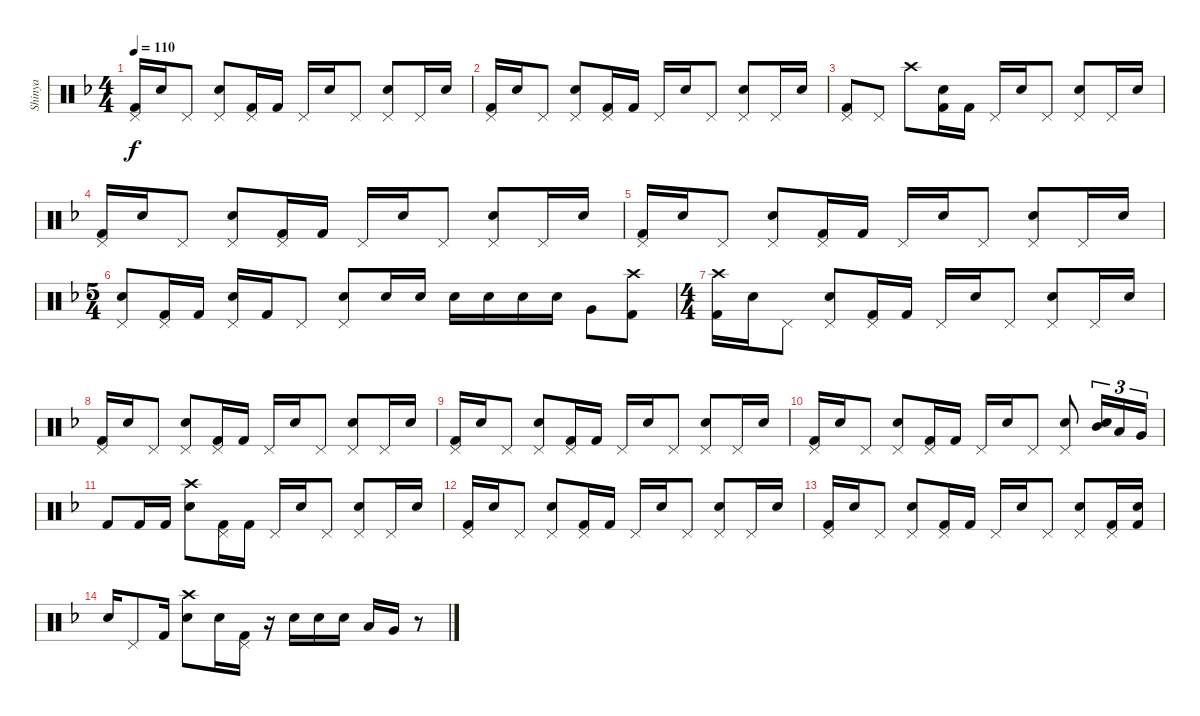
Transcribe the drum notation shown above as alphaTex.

\track ("Shinya" "Shinya") {instrument percussion}
\staff {score}
\articulation defaults
\ts (4 4)
\tempo 110
\clef neutral
\ks f
("Pedal Hi-Hat (hit)" "Kick (hit) 2").16{dy f} "Electric Snare (hit)".16 "Pedal Hi-Hat (hit)".8 ("Pedal Hi-Hat (hit)" "Electric Snare (hit)").8 ("Pedal Hi-Hat (hit)" "Kick (hit) 2").16 "Kick (hit) 2".16 "Pedal Hi-Hat (hit)".16 "Electric Snare (hit)".16 "Pedal Hi-Hat (hit)".8 ("Pedal Hi-Hat (hit)" "Electric Snare (hit)").8 "Pedal Hi-Hat (hit)".16 "Electric Snare (hit)".16 |
("Pedal Hi-Hat (hit)" "Kick (hit) 2").16 "Electric Snare (hit)".16 "Pedal Hi-Hat (hit)".8 ("Pedal Hi-Hat (hit)" "Electric Snare (hit)").8 ("Pedal Hi-Hat (hit)" "Kick (hit) 2").16 "Kick (hit) 2".16 "Pedal Hi-Hat (hit)".16 "Electric Snare (hit)".16 "Pedal Hi-Hat (hit)".8 ("Pedal Hi-Hat (hit)" "Electric Snare (hit)").8 "Pedal Hi-Hat (hit)".16 "Electric Snare (hit)".16 |
("Pedal Hi-Hat (hit)" "Kick (hit) 2").8 "Pedal Hi-Hat (hit)".8 "Crash high (hit)".8 ("Electric Snare (hit)" "Kick (hit) 2").16 "Kick (hit) 2".16 "Pedal Hi-Hat (hit)".16 "Electric Snare (hit)".16 "Pedal Hi-Hat (hit)".8 ("Pedal Hi-Hat (hit)" "Electric Snare (hit)").8 "Pedal Hi-Hat (hit)".16 "Electric Snare (hit)".16 |
("Pedal Hi-Hat (hit)" "Kick (hit) 2").16 "Electric Snare (hit)".16 "Pedal Hi-Hat (hit)".8 ("Pedal Hi-Hat (hit)" "Electric Snare (hit)").8 ("Pedal Hi-Hat (hit)" "Kick (hit) 2").16 "Kick (hit) 2".16 "Pedal Hi-Hat (hit)".16 "Electric Snare (hit)".16 "Pedal Hi-Hat (hit)".8 ("Pedal Hi-Hat (hit)" "Electric Snare (hit)").8 "Pedal Hi-Hat (hit)".16 "Electric Snare (hit)".16 |
("Pedal Hi-Hat (hit)" "Kick (hit) 2").16 "Electric Snare (hit)".16 "Pedal Hi-Hat (hit)".8 ("Pedal Hi-Hat (hit)" "Electric Snare (hit)").8 ("Pedal Hi-Hat (hit)" "Kick (hit) 2").16 "Kick (hit) 2".16 "Pedal Hi-Hat (hit)".16 "Electric Snare (hit)".16 "Pedal Hi-Hat (hit)".8 ("Pedal Hi-Hat (hit)" "Electric Snare (hit)").8 "Pedal Hi-Hat (hit)".16 "Electric Snare (hit)".16 |
\ts (5 4)
("Pedal Hi-Hat (hit)" "Electric Snare (hit)").8 ("Pedal Hi-Hat (hit)" "Kick (hit) 2").16 "Kick (hit) 2".16 ("Pedal Hi-Hat (hit)" "Electric Snare (hit)").16 "Kick (hit) 2".16 "Pedal Hi-Hat (hit)".8 ("Pedal Hi-Hat (hit)" "Electric Snare (hit)").8 "Electric Snare (hit)".16 "Electric Snare (hit)".16 "Electric Snare (hit)".16 "Electric Snare (hit)".16 "Electric Snare (hit)".16 "Electric Snare (hit)".16 "Very Low Tom (hit)".8 ("Crash high (hit)" "Kick (hit) 2").8 |
\ts (4 4)
("Crash high (hit)" "Kick (hit) 2").16 "Electric Snare (hit)".16 "Pedal Hi-Hat (hit)".8 ("Pedal Hi-Hat (hit)" "Electric Snare (hit)").8 ("Pedal Hi-Hat (hit)" "Kick (hit) 2").16 "Kick (hit) 2".16 "Pedal Hi-Hat (hit)".16 "Electric Snare (hit)".16 "Pedal Hi-Hat (hit)".8 ("Pedal Hi-Hat (hit)" "Electric Snare (hit)").8 "Pedal Hi-Hat (hit)".16 "Electric Snare (hit)".16 |
("Pedal Hi-Hat (hit)" "Kick (hit) 2").16 "Electric Snare (hit)".16 "Pedal Hi-Hat (hit)".8 ("Pedal Hi-Hat (hit)" "Electric Snare (hit)").8 ("Pedal Hi-Hat (hit)" "Kick (hit) 2").16 "Kick (hit) 2".16 "Pedal Hi-Hat (hit)".16 "Electric Snare (hit)".16 "Pedal Hi-Hat (hit)".8 ("Pedal Hi-Hat (hit)" "Electric Snare (hit)").8 "Pedal Hi-Hat (hit)".16 "Electric Snare (hit)".16 |
("Pedal Hi-Hat (hit)" "Kick (hit) 2").16 "Electric Snare (hit)".16 "Pedal Hi-Hat (hit)".8 ("Pedal Hi-Hat (hit)" "Electric Snare (hit)").8 ("Pedal Hi-Hat (hit)" "Kick (hit) 2").16 "Kick (hit) 2".16 "Pedal Hi-Hat (hit)".16 "Electric Snare (hit)".16 "Pedal Hi-Hat (hit)".8 ("Pedal Hi-Hat (hit)" "Electric Snare (hit)").8 "Pedal Hi-Hat (hit)".16 "Electric Snare (hit)".16 |
("Pedal Hi-Hat (hit)" "Kick (hit) 2").16 "Electric Snare (hit)".16 "Pedal Hi-Hat (hit)".8 ("Pedal Hi-Hat (hit)" "Electric Snare (hit)").8 ("Pedal Hi-Hat (hit)" "Kick (hit) 2").16 "Kick (hit) 2".16 "Pedal Hi-Hat (hit)".16 "Electric Snare (hit)".16 "Pedal Hi-Hat (hit)".8 ("Pedal Hi-Hat (hit)" "Electric Snare (hit)").8 ("Mid Tom (hit)" "Electric Snare (hit)").16{tu (3 2)} "Low Tom (hit)".16{tu (3 2)} "Very Low Tom (hit)".16{tu (3 2)} |
"Kick (hit) 2".8 "Kick (hit) 2".16 "Kick (hit) 2".16 ("Crash high (hit)" "Electric Snare (hit)").8 ("Pedal Hi-Hat (hit)" "Kick (hit) 2").16 "Kick (hit) 2".16 "Pedal Hi-Hat (hit)".16 "Electric Snare (hit)".16 "Pedal Hi-Hat (hit)".8 ("Pedal Hi-Hat (hit)" "Electric Snare (hit)").8 "Pedal Hi-Hat (hit)".16 "Electric Snare (hit)".16 |
("Pedal Hi-Hat (hit)" "Kick (hit) 2").16 "Electric Snare (hit)".16 "Pedal Hi-Hat (hit)".8 ("Pedal Hi-Hat (hit)" "Electric Snare (hit)").8 ("Pedal Hi-Hat (hit)" "Kick (hit) 2").16 "Kick (hit) 2".16 "Pedal Hi-Hat (hit)".16 "Electric Snare (hit)".16 "Pedal Hi-Hat (hit)".8 ("Pedal Hi-Hat (hit)" "Electric Snare (hit)").8 "Pedal Hi-Hat (hit)".16 "Electric Snare (hit)".16 |
("Pedal Hi-Hat (hit)" "Kick (hit) 2").16 "Electric Snare (hit)".16 "Pedal Hi-Hat (hit)".8 ("Pedal Hi-Hat (hit)" "Electric Snare (hit)").8 ("Pedal Hi-Hat (hit)" "Kick (hit) 2").16 "Kick (hit) 2".16 "Pedal Hi-Hat (hit)".16 "Electric Snare (hit)".16 "Pedal Hi-Hat (hit)".8 ("Pedal Hi-Hat (hit)" "Electric Snare (hit)").8 ("Pedal Hi-Hat (hit)" "Kick (hit) 2").16 ("Electric Snare (hit)" "Kick (hit) 2").16 |
"Electric Snare (hit)".16 "Pedal Hi-Hat (hit)".8 "Kick (hit) 2".16 ("Crash high (hit)" "Electric Snare (hit)").8 "Electric Snare (hit)".16 ("Pedal Hi-Hat (hit)" "Kick (hit) 2").16 r.16 "Electric Snare (hit)".16 "Electric Snare (hit)".16 "Electric Snare (hit)".16 "Low Tom (hit)".16 "Very Low Tom (hit)".16 r.8
